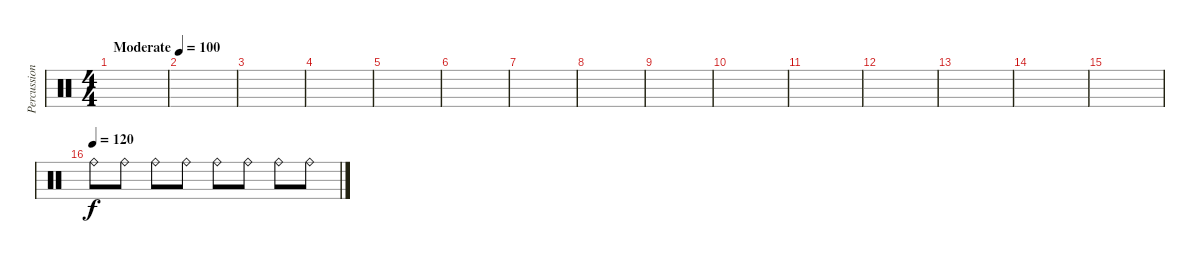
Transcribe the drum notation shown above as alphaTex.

\track ("Percussion" "Percussion") {instrument percussion}
\staff {score}
\articulation defaults
\ts (4 4)
\tempo (100 "Moderate")
\clef neutral
\ks c
|
|
|
|
|
|
|
|
|
|
|
|
|
|
|
\tempo (120)
"Ride (bell)".8 "Ride (bell)".8 "Ride (bell)".8 "Ride (bell)".8 "Ride (bell)".8 "Ride (bell)".8 "Ride (bell)".8 "Ride (bell)".8
